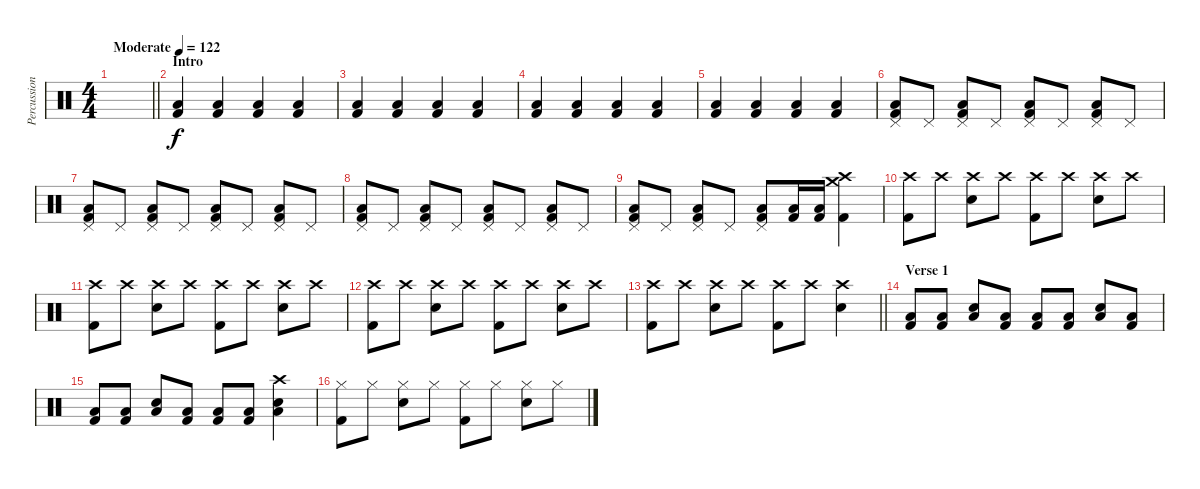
\track ("Percussion" "Percussion") {instrument percussion}
\staff {score}
\articulation defaults
\ts (4 4)
\tempo (122 "Moderate")
\clef neutral
\barLineRight lightlight
\ks c
|
\section ("" "Intro")
("Kick (hit) 2" "Low Floor Tom (hit)").4 ("Kick (hit) 2" "Low Floor Tom (hit)").4 ("Kick (hit) 2" "Low Floor Tom (hit)").4 ("Kick (hit) 2" "Low Floor Tom (hit)").4 |
("Kick (hit) 2" "Low Floor Tom (hit)").4 ("Kick (hit) 2" "Low Floor Tom (hit)").4 ("Kick (hit) 2" "Low Floor Tom (hit)").4 ("Kick (hit) 2" "Low Floor Tom (hit)").4 |
("Kick (hit) 2" "Low Floor Tom (hit)").4 ("Kick (hit) 2" "Low Floor Tom (hit)").4 ("Kick (hit) 2" "Low Floor Tom (hit)").4 ("Kick (hit) 2" "Low Floor Tom (hit)").4 |
("Kick (hit) 2" "Low Floor Tom (hit)").4 ("Kick (hit) 2" "Low Floor Tom (hit)").4 ("Kick (hit) 2" "Low Floor Tom (hit)").4 ("Kick (hit) 2" "Low Floor Tom (hit)").4 |
("Pedal Hi-Hat (hit)" "Low Floor Tom (hit)" "Kick (hit) 2").8 "Pedal Hi-Hat (hit)".8 ("Pedal Hi-Hat (hit)" "Low Floor Tom (hit)" "Kick (hit) 2").8 "Pedal Hi-Hat (hit)".8 ("Pedal Hi-Hat (hit)" "Low Floor Tom (hit)" "Kick (hit) 2").8 "Pedal Hi-Hat (hit)".8 ("Pedal Hi-Hat (hit)" "Low Floor Tom (hit)" "Kick (hit) 2").8 "Pedal Hi-Hat (hit)".8 |
("Pedal Hi-Hat (hit)" "Low Floor Tom (hit)" "Kick (hit) 2").8 "Pedal Hi-Hat (hit)".8 ("Pedal Hi-Hat (hit)" "Low Floor Tom (hit)" "Kick (hit) 2").8 "Pedal Hi-Hat (hit)".8 ("Pedal Hi-Hat (hit)" "Low Floor Tom (hit)" "Kick (hit) 2").8 "Pedal Hi-Hat (hit)".8 ("Pedal Hi-Hat (hit)" "Low Floor Tom (hit)" "Kick (hit) 2").8 "Pedal Hi-Hat (hit)".8 |
("Pedal Hi-Hat (hit)" "Low Floor Tom (hit)" "Kick (hit) 2").8 "Pedal Hi-Hat (hit)".8 ("Pedal Hi-Hat (hit)" "Low Floor Tom (hit)" "Kick (hit) 2").8 "Pedal Hi-Hat (hit)".8 ("Pedal Hi-Hat (hit)" "Low Floor Tom (hit)" "Kick (hit) 2").8 "Pedal Hi-Hat (hit)".8 ("Pedal Hi-Hat (hit)" "Low Floor Tom (hit)" "Kick (hit) 2").8 "Pedal Hi-Hat (hit)".8 |
("Pedal Hi-Hat (hit)" "Low Floor Tom (hit)" "Kick (hit) 2").8 "Pedal Hi-Hat (hit)".8 ("Pedal Hi-Hat (hit)" "Low Floor Tom (hit)" "Kick (hit) 2").8 "Pedal Hi-Hat (hit)".8 ("Pedal Hi-Hat (hit)" "Low Floor Tom (hit)" "Kick (hit) 2").8 ("Low Floor Tom (hit)" "Kick (hit) 2").16 ("Low Floor Tom (hit)" "Kick (hit) 2").16 ("Crash high (hit)" "Crash medium (hit)" "Kick (hit) 2").4 |
("Crash high (hit)" "Kick (hit) 2").8 "Crash high (hit)".8 ("Crash high (hit)" "Electric Snare (hit)").8 "Crash high (hit)".8 ("Crash high (hit)" "Kick (hit) 2").8 "Crash high (hit)".8 ("Crash high (hit)" "Electric Snare (hit)").8 "Crash high (hit)".8 |
("Crash high (hit)" "Kick (hit) 2").8 "Crash high (hit)".8 ("Crash high (hit)" "Electric Snare (hit)").8 "Crash high (hit)".8 ("Crash high (hit)" "Kick (hit) 2").8 "Crash high (hit)".8 ("Crash high (hit)" "Electric Snare (hit)").8 "Crash high (hit)".8 |
("Crash high (hit)" "Kick (hit) 2").8 "Crash high (hit)".8 ("Crash high (hit)" "Electric Snare (hit)").8 "Crash high (hit)".8 ("Crash high (hit)" "Kick (hit) 2").8 "Crash high (hit)".8 ("Crash high (hit)" "Electric Snare (hit)").8 "Crash high (hit)".8 |
\barLineRight lightlight
("Crash high (hit)" "Kick (hit) 2").8 "Crash high (hit)".8 ("Crash high (hit)" "Electric Snare (hit)").8 "Crash high (hit)".8 ("Crash high (hit)" "Kick (hit) 2").8 "Crash high (hit)".8 ("Crash high (hit)" "Electric Snare (hit)").4 |
\section ("" "Verse 1")
("Low Floor Tom (hit)" "Kick (hit) 2").8 ("Low Floor Tom (hit)" "Kick (hit) 2").8 ("Electric Snare (hit)" "Low Floor Tom (hit)").8 ("Low Floor Tom (hit)" "Kick (hit) 2").8 ("Low Floor Tom (hit)" "Kick (hit) 2").8 ("Low Floor Tom (hit)" "Kick (hit) 2").8 ("Electric Snare (hit)" "Low Floor Tom (hit)").8 ("Low Floor Tom (hit)" "Kick (hit) 2").8 |
("Low Floor Tom (hit)" "Kick (hit) 2").8 ("Low Floor Tom (hit)" "Kick (hit) 2").8 ("Electric Snare (hit)" "Low Floor Tom (hit)").8 ("Low Floor Tom (hit)" "Kick (hit) 2").8 ("Low Floor Tom (hit)" "Kick (hit) 2").8 ("Low Floor Tom (hit)" "Kick (hit) 2").8 ("Crash high (hit)" "Electric Snare (hit)" "Low Floor Tom (hit)").4 |
("Hi-Hat (closed)" "Kick (hit) 2").8 "Hi-Hat (closed)".8 ("Hi-Hat (closed)" "Electric Snare (hit)").8 "Hi-Hat (closed)".8 ("Hi-Hat (closed)" "Kick (hit) 2").8 "Hi-Hat (closed)".8 ("Hi-Hat (closed)" "Electric Snare (hit)").8 "Hi-Hat (closed)".8
